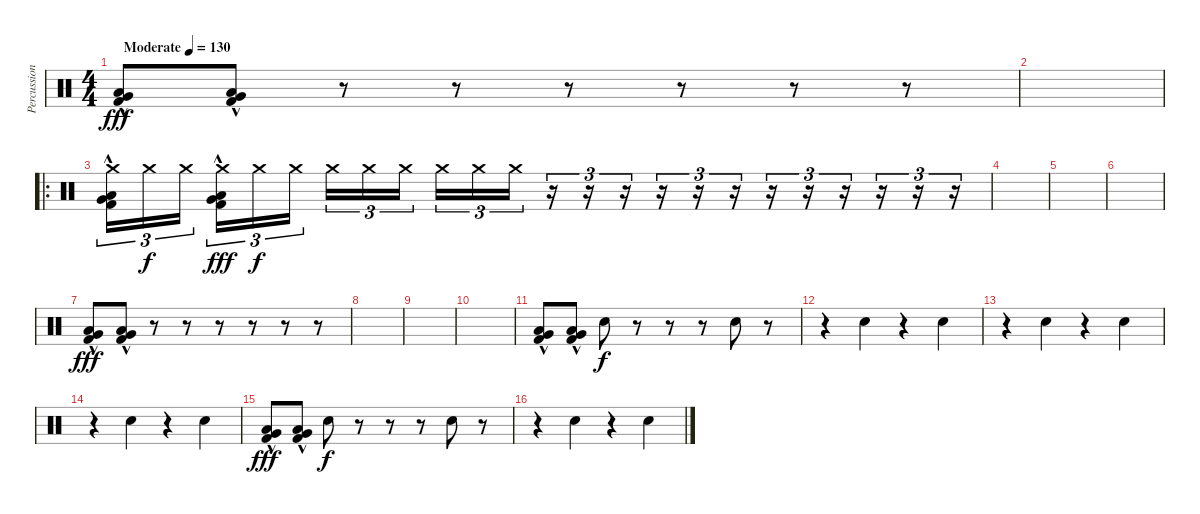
\track ("Percussion" "Percussion") {instrument percussion}
\staff {score}
\articulation defaults
\ts (4 4)
\tempo (130 "Moderate")
\clef neutral
\ks c
("Low Floor Tom (hit)"{hac} "Very Low Tom (hit)"{hac} "Kick (hit) 2"{hac}).8{dy fff} ("Low Floor Tom (hit)"{hac} "Very Low Tom (hit)"{hac} "Kick (hit) 2"{hac}).8 r.8 r.8 r.8 r.8 r.8 r.8 |
|
\ro
("Crash medium (hit)" "Low Floor Tom (hit)"{hac} "Very Low Tom (hit)"{hac} "Kick (hit) 2"{hac}).16{tu (3 2)} "Crash medium (hit)".16{tu (3 2) dy f} "Crash medium (hit)".16{tu (3 2) beam splitsecondary} ("Crash medium (hit)" "Low Floor Tom (hit)"{hac} "Very Low Tom (hit)"{hac} "Kick (hit) 2"{hac}).16{tu (3 2) dy fff} "Crash medium (hit)".16{tu (3 2) dy f} "Crash medium (hit)".16{tu (3 2)} "Crash medium (hit)".16{tu (3 2)} "Crash medium (hit)".16{tu (3 2)} "Crash medium (hit)".16{tu (3 2) beam splitsecondary} "Crash medium (hit)".16{tu (3 2)} "Crash medium (hit)".16{tu (3 2)} "Crash medium (hit)".16{tu (3 2)} r.16{tu (3 2)} r.16{tu (3 2)} r.16{tu (3 2)} r.16{tu (3 2)} r.16{tu (3 2)} r.16{tu (3 2)} r.16{tu (3 2)} r.16{tu (3 2)} r.16{tu (3 2)} r.16{tu (3 2)} r.16{tu (3 2)} r.16{tu (3 2)} |
|
|
|
("Low Floor Tom (hit)"{hac} "Very Low Tom (hit)"{hac} "Kick (hit) 2"{hac}).8{dy fff} ("Low Floor Tom (hit)"{hac} "Very Low Tom (hit)"{hac} "Kick (hit) 2"{hac}).8 r.8 r.8 r.8 r.8 r.8 r.8 |
|
|
|
("Low Floor Tom (hit)"{hac} "Very Low Tom (hit)"{hac} "Kick (hit) 2"{hac}).8 ("Low Floor Tom (hit)"{hac} "Very Low Tom (hit)"{hac} "Kick (hit) 2"{hac}).8 "Snare (hit) 2".8{dy f} r.8 r.8 r.8 "Snare (hit) 2".8 r.8 |
r.4 "Snare (hit) 2".4 r.4 "Snare (hit) 2".4 |
r.4 "Snare (hit) 2".4 r.4 "Snare (hit) 2".4 |
r.4 "Snare (hit) 2".4 r.4 "Snare (hit) 2".4 |
("Low Floor Tom (hit)"{hac} "Very Low Tom (hit)"{hac} "Kick (hit) 2"{hac}).8{dy fff} ("Low Floor Tom (hit)"{hac} "Very Low Tom (hit)"{hac} "Kick (hit) 2"{hac}).8 "Snare (hit) 2".8{dy f} r.8 r.8 r.8 "Snare (hit) 2".8 r.8 |
r.4 "Snare (hit) 2".4 r.4 "Snare (hit) 2".4
